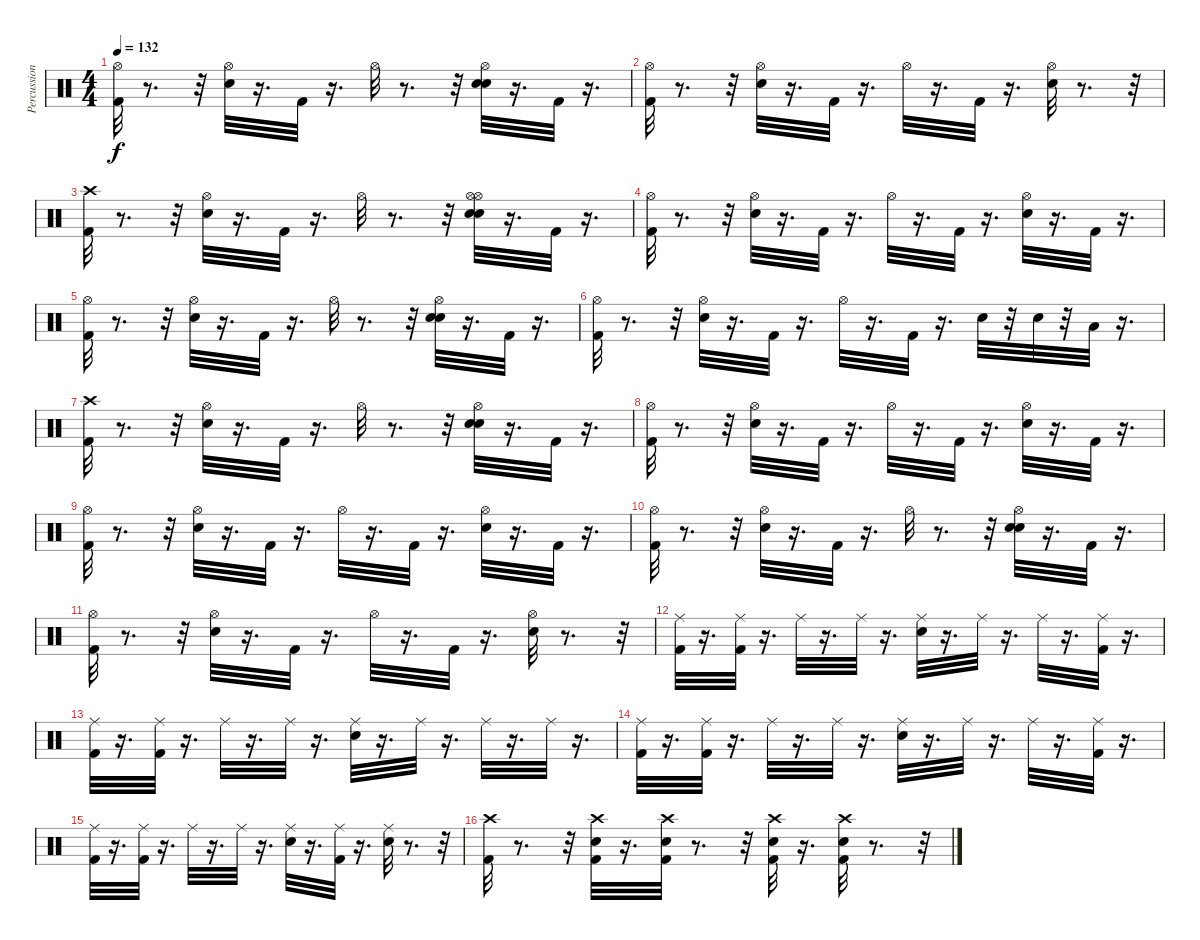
\track ("Percussion" "Percussion") {instrument percussion}
\staff {score}
\articulation defaults
\ts (4 4)
\tempo 132
\clef neutral
\ks c
("Hi-Hat (open)" "Kick (hit) 2").32{dy f} r.8{d} r.32 ("Snare (hit) 2" "Hi-Hat (open)").32 r.16{d} "Kick (hit) 2".32 r.16{d} "Hi-Hat (open)".32 r.8{d} r.32 ("Snare (hit) 2" "Snare (hit) 2" "Hi-Hat (open)").32 r.16{d} "Kick (hit) 2".32 r.16{d} |
("Hi-Hat (open)" "Kick (hit) 2").32 r.8{d} r.32 ("Snare (hit) 2" "Hi-Hat (open)").32 r.16{d} "Kick (hit) 2".32 r.16{d} "Hi-Hat (open)".32 r.16{d} "Kick (hit) 2".32 r.16{d} ("Snare (hit) 2" "Hi-Hat (open)").32 r.8{d} r.32 |
("Kick (hit) 2" "Crash high (hit)").32 r.8{d} r.32 ("Snare (hit) 2" "Hi-Hat (open)").32 r.16{d} "Kick (hit) 2".32 r.16{d} "Hi-Hat (open)".32 r.8{d} r.32 ("Snare (hit) 2" "Hi-Hat (open)" "Snare (hit) 2" "Hi-Hat (open)").32 r.16{d} "Kick (hit) 2".32 r.16{d} |
("Kick (hit) 2" "Hi-Hat (open)").32 r.8{d} r.32 ("Snare (hit) 2" "Hi-Hat (open)").32 r.16{d} "Kick (hit) 2".32 r.16{d} "Hi-Hat (open)".32 r.16{d} "Kick (hit) 2".32 r.16{d} ("Snare (hit) 2" "Hi-Hat (open)").32 r.16{d} "Kick (hit) 2".32 r.16{d} |
("Hi-Hat (open)" "Kick (hit) 2").32 r.8{d} r.32 ("Snare (hit) 2" "Hi-Hat (open)").32 r.16{d} "Kick (hit) 2".32 r.16{d} "Hi-Hat (open)".32 r.8{d} r.32 ("Snare (hit) 2" "Snare (hit) 2" "Hi-Hat (open)").32 r.16{d} "Kick (hit) 2".32 r.16{d} |
("Kick (hit) 2" "Hi-Hat (open)").32 r.8{d} r.32 ("Snare (hit) 2" "Hi-Hat (open)").32 r.16{d} "Kick (hit) 2".32 r.16{d} "Hi-Hat (open)".32 r.16{d} "Kick (hit) 2".32 r.16{d} "Snare (hit) 2".32 r.32 "Snare (hit) 2".32 r.32 "Low Floor Tom (hit)".32 r.16{d} |
("Kick (hit) 2" "Crash high (hit)").32 r.8{d} r.32 ("Snare (hit) 2" "Hi-Hat (open)").32 r.16{d} "Kick (hit) 2".32 r.16{d} "Hi-Hat (open)".32 r.8{d} r.32 ("Snare (hit) 2" "Snare (hit) 2" "Hi-Hat (open)").32 r.16{d} "Kick (hit) 2".32 r.16{d} |
("Kick (hit) 2" "Hi-Hat (open)").32 r.8{d} r.32 ("Snare (hit) 2" "Hi-Hat (open)").32 r.16{d} "Kick (hit) 2".32 r.16{d} "Hi-Hat (open)".32 r.16{d} "Kick (hit) 2".32 r.16{d} ("Hi-Hat (open)" "Snare (hit) 2").32 r.16{d} "Kick (hit) 2".32 r.16{d} |
("Kick (hit) 2" "Hi-Hat (open)").32 r.8{d} r.32 ("Snare (hit) 2" "Hi-Hat (open)").32 r.16{d} "Kick (hit) 2".32 r.16{d} "Hi-Hat (open)".32 r.16{d} "Kick (hit) 2".32 r.16{d} ("Hi-Hat (open)" "Snare (hit) 2").32 r.16{d} "Kick (hit) 2".32 r.16{d} |
("Hi-Hat (open)" "Kick (hit) 2").32 r.8{d} r.32 ("Snare (hit) 2" "Hi-Hat (open)").32 r.16{d} "Kick (hit) 2".32 r.16{d} "Hi-Hat (open)".32 r.8{d} r.32 ("Snare (hit) 2" "Snare (hit) 2" "Hi-Hat (open)").32 r.16{d} "Kick (hit) 2".32 r.16{d} |
("Hi-Hat (open)" "Kick (hit) 2").32 r.8{d} r.32 ("Snare (hit) 2" "Hi-Hat (open)").32 r.16{d} "Kick (hit) 2".32 r.16{d} "Hi-Hat (open)".32 r.16{d} "Kick (hit) 2".32 r.16{d} ("Snare (hit) 2" "Hi-Hat (open)").32 r.8{d} r.32 |
("Ride (middle)" "Kick (hit) 2").32 r.16{d} ("Kick (hit) 2" "Ride (middle)").32 r.16{d} "Ride (middle)".32 r.16{d} "Ride (middle)".32 r.16{d} ("Ride (middle)" "Snare (hit) 2").32 r.16{d} "Ride (middle)".32 r.16{d} "Ride (middle)".32 r.16{d} ("Ride (middle)" "Kick (hit) 2").32 r.16{d} |
("Kick (hit) 2" "Ride (middle)").32 r.16{d} ("Kick (hit) 2" "Ride (middle)").32 r.16{d} "Ride (middle)".32 r.16{d} "Ride (middle)".32 r.16{d} ("Ride (middle)" "Snare (hit) 2").32 r.16{d} "Ride (middle)".32 r.16{d} "Ride (middle)".32 r.16{d} "Ride (middle)".32 r.16{d} |
("Ride (middle)" "Kick (hit) 2").32 r.16{d} ("Kick (hit) 2" "Ride (middle)").32 r.16{d} "Ride (middle)".32 r.16{d} "Ride (middle)".32 r.16{d} ("Ride (middle)" "Snare (hit) 2").32 r.16{d} "Ride (middle)".32 r.16{d} "Ride (middle)".32 r.16{d} ("Kick (hit) 2" "Ride (middle)").32 r.16{d} |
("Ride (middle)" "Kick (hit) 2").32 r.16{d} ("Kick (hit) 2" "Ride (middle)").32 r.16{d} "Ride (middle)".32 r.16{d} "Ride (middle)".32 r.16{d} ("Ride (middle)" "Snare (hit) 2").32 r.16{d} ("Ride (middle)" "Kick (hit) 2").32 r.16{d} ("Ride (middle)" "Snare (hit) 2").32 r.8{d} r.32 |
("Kick (hit) 2" "Crash high (hit)").32 r.8{d} r.32 ("Kick (hit) 2" "Crash high (hit)" "Snare (hit) 2").32 r.16{d} ("Snare (hit) 2" "Kick (hit) 2" "Crash high (hit)").32 r.8{d} r.32 ("Crash high (hit)" "Kick (hit) 2" "Snare (hit) 2").32 r.16{d} ("Snare (hit) 2" "Crash high (hit)" "Kick (hit) 2").32 r.8{d} r.32
